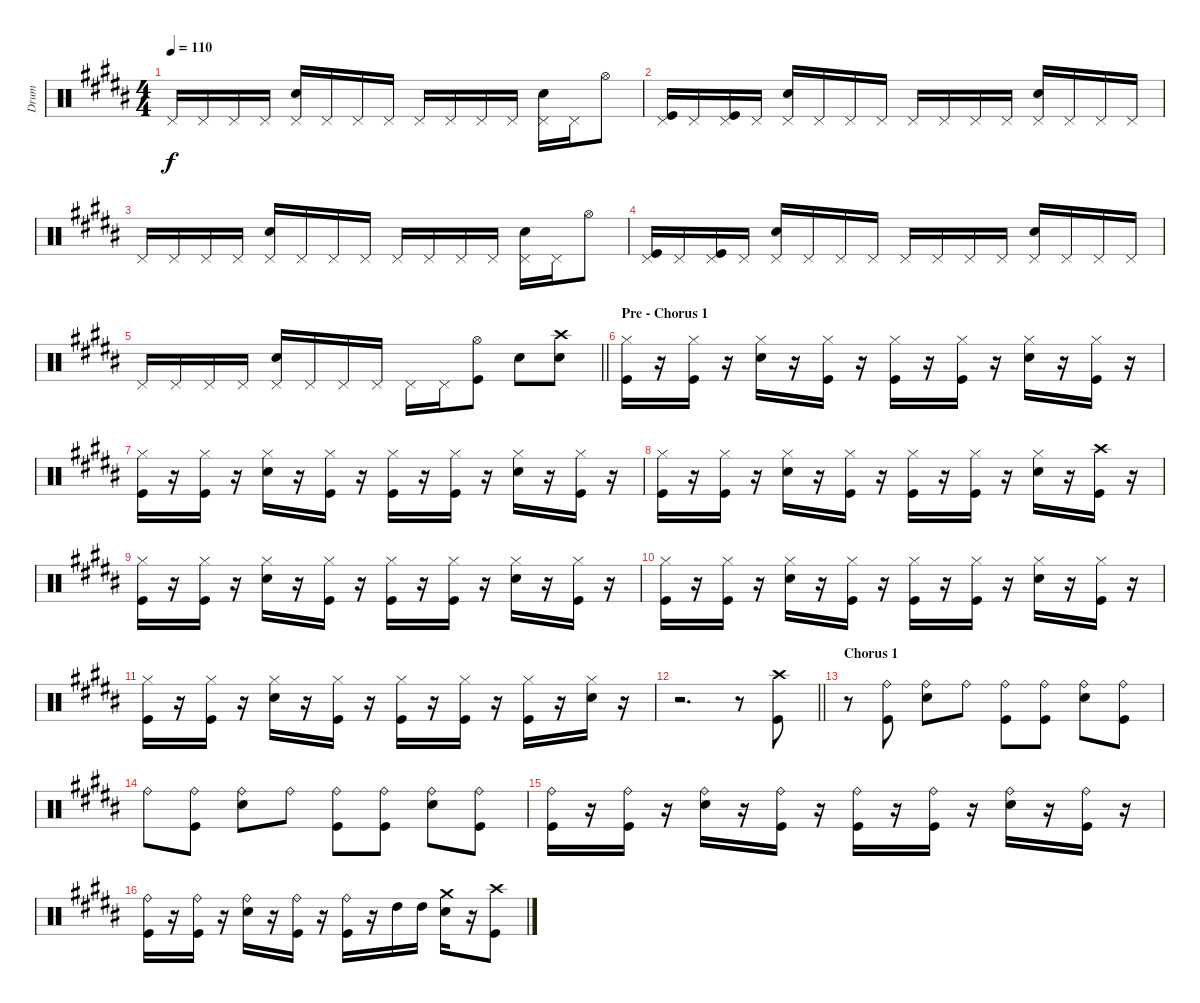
\track ("Drum" "Drum") {instrument percussion}
\staff {score}
\articulation defaults
\ts (4 4)
\tempo 110
\clef neutral
\ks g#minor "Pedal Hi-Hat (hit)".16{dy f} "Pedal Hi-Hat (hit)".16 "Pedal Hi-Hat (hit)".16 "Pedal Hi-Hat (hit)".16
("Pedal Hi-Hat (hit)" "Snare (hit) 2").16 "Pedal Hi-Hat (hit)".16 "Pedal Hi-Hat (hit)".16 "Pedal Hi-Hat (hit)".16 "Pedal Hi-Hat (hit)".16 "Pedal Hi-Hat (hit)".16 "Pedal Hi-Hat (hit)".16 "Pedal Hi-Hat (hit)".16 ("Pedal Hi-Hat (hit)" "Snare (hit) 2").16 "Pedal Hi-Hat (hit)".16 "Hi-Hat (open)".8 |
("Pedal Hi-Hat (hit)" "Kick (hit)").16 "Pedal Hi-Hat (hit)".16 ("Pedal Hi-Hat (hit)" "Kick (hit)").16 "Pedal Hi-Hat (hit)".16 ("Pedal Hi-Hat (hit)" "Snare (hit) 2").16 "Pedal Hi-Hat (hit)".16 "Pedal Hi-Hat (hit)".16 "Pedal Hi-Hat (hit)".16 "Pedal Hi-Hat (hit)".16 "Pedal Hi-Hat (hit)".16 "Pedal Hi-Hat (hit)".16 "Pedal Hi-Hat (hit)".16 ("Pedal Hi-Hat (hit)" "Snare (hit) 2").16 "Pedal Hi-Hat (hit)".16 "Pedal Hi-Hat (hit)".16 "Pedal Hi-Hat (hit)".16 |
"Pedal Hi-Hat (hit)".16 "Pedal Hi-Hat (hit)".16 "Pedal Hi-Hat (hit)".16 "Pedal Hi-Hat (hit)".16 ("Pedal Hi-Hat (hit)" "Snare (hit) 2").16 "Pedal Hi-Hat (hit)".16 "Pedal Hi-Hat (hit)".16 "Pedal Hi-Hat (hit)".16 "Pedal Hi-Hat (hit)".16 "Pedal Hi-Hat (hit)".16 "Pedal Hi-Hat (hit)".16 "Pedal Hi-Hat (hit)".16 ("Pedal Hi-Hat (hit)" "Snare (hit) 2").16 "Pedal Hi-Hat (hit)".16 "Hi-Hat (open)".8 |
("Pedal Hi-Hat (hit)" "Kick (hit)").16 "Pedal Hi-Hat (hit)".16 ("Pedal Hi-Hat (hit)" "Kick (hit)").16 "Pedal Hi-Hat (hit)".16 ("Pedal Hi-Hat (hit)" "Snare (hit) 2").16 "Pedal Hi-Hat (hit)".16 "Pedal Hi-Hat (hit)".16 "Pedal Hi-Hat (hit)".16 "Pedal Hi-Hat (hit)".16 "Pedal Hi-Hat (hit)".16 "Pedal Hi-Hat (hit)".16 "Pedal Hi-Hat (hit)".16 ("Pedal Hi-Hat (hit)" "Snare (hit) 2").16 "Pedal Hi-Hat (hit)".16 "Pedal Hi-Hat (hit)".16 "Pedal Hi-Hat (hit)".16 |
\barLineRight lightlight "Pedal Hi-Hat (hit)".16 "Pedal Hi-Hat (hit)".16 "Pedal Hi-Hat (hit)".16 "Pedal Hi-Hat (hit)".16
("Pedal Hi-Hat (hit)" "Snare (hit) 2").16 "Pedal Hi-Hat (hit)".16 "Pedal Hi-Hat (hit)".16 "Pedal Hi-Hat (hit)".16 "Pedal Hi-Hat (hit)".16 "Pedal Hi-Hat (hit)".16 ("Hi-Hat (open)" "Kick (hit)").8 "Snare (hit) 2".8 ("Snare (hit) 2" "Crash high (hit)").8 |
\section ("" "Pre - Chorus 1")
\ks b
("Kick (hit)" "Hi-Hat (closed)").16 r.16 ("Kick (hit)" "Hi-Hat (closed)").16 r.16 ("Snare (hit) 2" "Hi-Hat (closed)").16 r.16 ("Kick (hit)" "Hi-Hat (closed)").16 r.16 ("Kick (hit)" "Hi-Hat (closed)").16 r.16 ("Kick (hit)" "Hi-Hat (closed)").16 r.16 ("Snare (hit) 2" "Hi-Hat (closed)").16 r.16 ("Kick (hit)" "Hi-Hat (closed)").16 r.16 |
\ks g#minor
("Kick (hit)" "Hi-Hat (closed)").16 r.16 ("Kick (hit)" "Hi-Hat (closed)").16 r.16 ("Snare (hit) 2" "Hi-Hat (closed)").16 r.16 ("Kick (hit)" "Hi-Hat (closed)").16 r.16 ("Kick (hit)" "Hi-Hat (closed)").16 r.16 ("Kick (hit)" "Hi-Hat (closed)").16 r.16 ("Snare (hit) 2" "Hi-Hat (closed)").16 r.16 ("Kick (hit)" "Hi-Hat (closed)").16 r.16 |
("Kick (hit)" "Hi-Hat (closed)").16 r.16 ("Kick (hit)" "Hi-Hat (closed)").16 r.16 ("Snare (hit) 2" "Hi-Hat (closed)").16 r.16 ("Kick (hit)" "Hi-Hat (closed)").16 r.16 ("Kick (hit)" "Hi-Hat (closed)").16 r.16 ("Kick (hit)" "Hi-Hat (closed)").16 r.16 ("Snare (hit) 2" "Hi-Hat (closed)").16 r.16 ("Kick (hit)" "Crash high (hit)").16 r.16 |
\ks b
("Kick (hit)" "Hi-Hat (closed)").16 r.16 ("Kick (hit)" "Hi-Hat (closed)").16 r.16 ("Snare (hit) 2" "Hi-Hat (closed)").16 r.16 ("Kick (hit)" "Hi-Hat (closed)").16 r.16 ("Kick (hit)" "Hi-Hat (closed)").16 r.16 ("Kick (hit)" "Hi-Hat (closed)").16 r.16 ("Snare (hit) 2" "Hi-Hat (closed)").16 r.16 ("Kick (hit)" "Hi-Hat (closed)").16 r.16 |
\ks g#minor
("Kick (hit)" "Hi-Hat (closed)").16 r.16 ("Kick (hit)" "Hi-Hat (closed)").16 r.16 ("Snare (hit) 2" "Hi-Hat (closed)").16 r.16 ("Kick (hit)" "Hi-Hat (closed)").16 r.16 ("Kick (hit)" "Hi-Hat (closed)").16 r.16 ("Kick (hit)" "Hi-Hat (closed)").16 r.16 ("Snare (hit) 2" "Hi-Hat (closed)").16 r.16 ("Kick (hit)" "Hi-Hat (closed)").16 r.16 |
("Kick (hit)" "Hi-Hat (closed)").16 r.16 ("Kick (hit)" "Hi-Hat (closed)").16 r.16 ("Snare (hit) 2" "Hi-Hat (closed)").16 r.16 ("Kick (hit)" "Hi-Hat (closed)").16 r.16 ("Kick (hit)" "Hi-Hat (closed)").16 r.16 ("Kick (hit)" "Hi-Hat (closed)").16 r.16 ("Kick (hit)" "Hi-Hat (closed)").16 r.16 ("Snare (hit) 2" "Hi-Hat (closed)").16 r.16 |
\barLineRight lightlight
r.2{d} r.8 ("Kick (hit)" "Crash high (hit)").8 |
\section ("" "Chorus 1")
\ks b
r.8 ("Kick (hit)" "Ride (bell)").8 ("Snare (hit) 2" "Ride (bell)").8 "Ride (bell)".8 ("Kick (hit)" "Ride (bell)").8 ("Kick (hit)" "Ride (bell)").8 ("Snare (hit) 2" "Ride (bell)").8 ("Kick (hit)" "Ride (bell)").8 |
\ks g#minor "Ride (bell)".8
("Kick (hit)" "Ride (bell)").8 ("Snare (hit) 2" "Ride (bell)").8 "Ride (bell)".8 ("Kick (hit)" "Ride (bell)").8 ("Kick (hit)" "Ride (bell)").8 ("Snare (hit) 2" "Ride (bell)").8 ("Kick (hit)" "Ride (bell)").8 |
("Kick (hit)" "Ride (bell)").16 r.16 ("Kick (hit)" "Ride (bell)").16 r.16 ("Snare (hit) 2" "Ride (bell)").16 r.16 ("Kick (hit)" "Ride (bell)").16 r.16 ("Kick (hit)" "Ride (bell)").16 r.16 ("Kick (hit)" "Ride (bell)").16 r.16 ("Snare (hit) 2" "Ride (bell)").16 r.16 ("Kick (hit)" "Ride (bell)").16 r.16 |
("Kick (hit)" "Ride (bell)").16 r.16 ("Kick (hit)" "Ride (bell)").16 r.16 ("Snare (hit) 2" "Ride (bell)").16 r.16 ("Kick (hit)" "Ride (bell)").16 r.16 ("Kick (hit)" "Ride (bell)").16 r.16 "High Tom (hit)".16 "High Tom (hit)".16 ("Snare (hit) 2" "Crash medium (hit)").16 r.16 ("Kick (hit)" "Crash high (hit)").8
